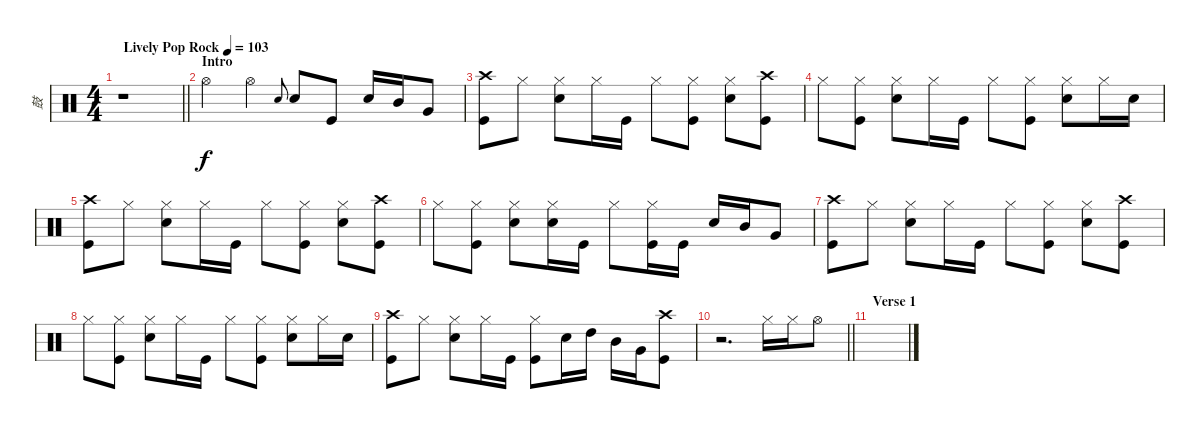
\track ("鼓" "鼓") {instrument percussion}
\staff {score}
\articulation defaults
\ts (4 4)
\tempo (103 "Lively Pop Rock")
\clef neutral
\barLineRight lightlight
\ks c
r.1{dy f} |
\section ("" "Intro")
"Hi-Hat (open)".4 "Hi-Hat (open)".4 "Snare (hit) 2".8{gr onbeat} "Snare (hit) 2".8 "Kick (hit)".8 "Snare (hit) 2".16 "Mid Tom (hit)".16 "Very Low Tom (hit)".8 |
("Crash high (hit)" "Kick (hit)").8 "Hi-Hat (closed)".8 ("Hi-Hat (closed)" "Snare (hit) 2").8 "Hi-Hat (closed)".16 "Kick (hit)".16 "Hi-Hat (closed)".8 ("Hi-Hat (closed)" "Kick (hit)").8 ("Hi-Hat (closed)" "Snare (hit) 2").8 ("Crash high (hit)" "Kick (hit)").8 |
"Hi-Hat (closed)".8 ("Hi-Hat (closed)" "Kick (hit)").8 ("Hi-Hat (closed)" "Snare (hit) 2").8 "Hi-Hat (closed)".16 "Kick (hit)".16 "Hi-Hat (closed)".8 ("Hi-Hat (closed)" "Kick (hit)").8 ("Hi-Hat (closed)" "Snare (hit) 2").8 "Hi-Hat (closed)".16 "Snare (hit) 2".16 |
("Crash high (hit)" "Kick (hit)").8 "Hi-Hat (closed)".8 ("Hi-Hat (closed)" "Snare (hit) 2").8 "Hi-Hat (closed)".16 "Kick (hit)".16 "Hi-Hat (closed)".8 ("Hi-Hat (closed)" "Kick (hit)").8 ("Hi-Hat (closed)" "Snare (hit) 2").8 ("Crash high (hit)" "Kick (hit)").8 |
"Hi-Hat (closed)".8 ("Hi-Hat (closed)" "Kick (hit)").8 ("Hi-Hat (closed)" "Snare (hit) 2").8 ("Hi-Hat (closed)" "Snare (hit) 2").16 "Kick (hit)".16 "Hi-Hat (closed)".8 ("Hi-Hat (closed)" "Kick (hit)").16 "Kick (hit)".16 "Snare (hit) 2".16 "Mid Tom (hit)".16 "Very Low Tom (hit)".8 |
("Crash high (hit)" "Kick (hit)").8 "Hi-Hat (closed)".8 ("Hi-Hat (closed)" "Snare (hit) 2").8 "Hi-Hat (closed)".16 "Kick (hit)".16 "Hi-Hat (closed)".8 ("Hi-Hat (closed)" "Kick (hit)").8 ("Hi-Hat (closed)" "Snare (hit) 2").8 ("Crash high (hit)" "Kick (hit)").8 |
"Hi-Hat (closed)".8 ("Hi-Hat (closed)" "Kick (hit)").8 ("Hi-Hat (closed)" "Snare (hit) 2").8 "Hi-Hat (closed)".16 "Kick (hit)".16 "Hi-Hat (closed)".8 ("Hi-Hat (closed)" "Kick (hit)").8 ("Hi-Hat (closed)" "Snare (hit) 2").8 "Hi-Hat (closed)".16 "Snare (hit) 2".16 |
("Crash high (hit)" "Kick (hit)").8 "Hi-Hat (closed)".8 ("Hi-Hat (closed)" "Snare (hit) 2").8 "Hi-Hat (closed)".16 "Kick (hit)".16 ("Hi-Hat (closed)" "Kick (hit)").8 "Snare (hit) 2".16 "High Tom (hit)".16 "Mid Tom (hit)".16 "Very Low Tom (hit)".16 ("Crash high (hit)" "Kick (hit)").8 |
\barLineRight lightlight
r.2{d} "Hi-Hat (closed)".16 "Hi-Hat (closed)".16 "Hi-Hat (open)".8 |
\section ("" "Verse 1")
